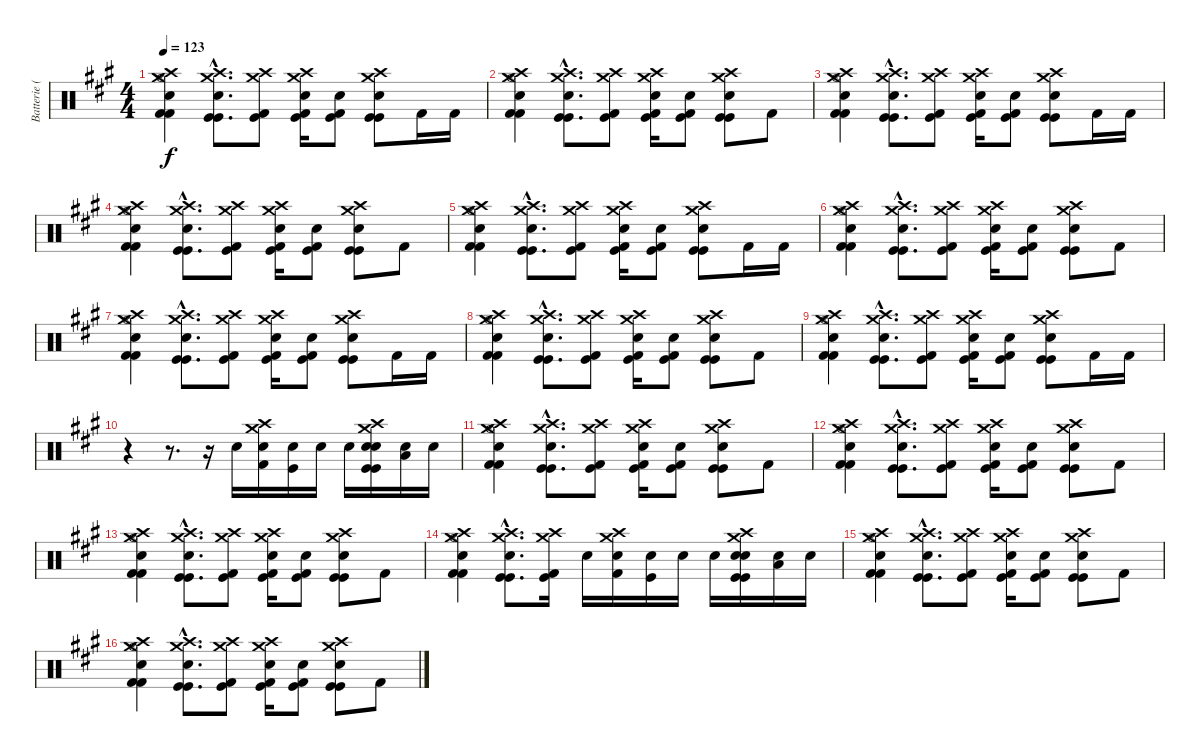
\track ("Batterie (Dominic Howard)" "Batterie (") {instrument percussion}
\staff {score}
\articulation defaults
\ts (4 4)
\tempo 123
\clef neutral
\ks a
("Crash medium (hit)" "Crash high (hit)" "Hi-Hat (open)" "Snare (hit) 2" "Kick (hit) 2" "Kick (hit) 2").4{dy f} ("Crash medium (hit)"{hac} "Crash high (hit)"{hac} "Electric Snare (hit)"{hac} "Kick (hit)"{hac} "Kick (hit)"{hac}).8{d} ("Crash medium (hit)" "Crash high (hit)" "Kick (hit)" "Kick (hit) 2").8 ("Crash medium (hit)" "Crash high (hit)" "Snare (hit) 2" "Kick (hit)" "Kick (hit) 2").16 ("Snare (hit) 2" "Kick (hit) 2" "Kick (hit)").8 ("Crash medium (hit)" "Crash high (hit)" "Electric Snare (hit)" "Kick (hit)" "Kick (hit)").8 "Kick (hit) 2".16 "Kick (hit) 2".16 |
("Crash medium (hit)" "Crash high (hit)" "Hi-Hat (open)" "Snare (hit) 2" "Kick (hit) 2" "Kick (hit) 2").4 ("Crash medium (hit)"{hac} "Crash high (hit)"{hac} "Electric Snare (hit)"{hac} "Kick (hit)"{hac} "Kick (hit)"{hac}).8{d} ("Crash medium (hit)" "Crash high (hit)" "Kick (hit)" "Kick (hit) 2").8 ("Crash medium (hit)" "Crash high (hit)" "Snare (hit) 2" "Kick (hit)" "Kick (hit) 2").16 ("Snare (hit) 2" "Kick (hit) 2" "Kick (hit)").8 ("Crash medium (hit)" "Crash high (hit)" "Electric Snare (hit)" "Kick (hit)" "Kick (hit)").8 "Kick (hit) 2".8 |
("Crash medium (hit)" "Crash high (hit)" "Hi-Hat (open)" "Snare (hit) 2" "Kick (hit) 2" "Kick (hit) 2").4 ("Crash medium (hit)"{hac} "Crash high (hit)"{hac} "Electric Snare (hit)"{hac} "Kick (hit)"{hac} "Kick (hit)"{hac}).8{d} ("Crash medium (hit)" "Crash high (hit)" "Kick (hit)" "Kick (hit) 2").8 ("Crash medium (hit)" "Crash high (hit)" "Snare (hit) 2" "Kick (hit)" "Kick (hit) 2").16 ("Snare (hit) 2" "Kick (hit) 2" "Kick (hit)").8 ("Crash medium (hit)" "Crash high (hit)" "Electric Snare (hit)" "Kick (hit)" "Kick (hit)").8 "Kick (hit) 2".16 "Kick (hit) 2".16 |
("Crash medium (hit)" "Crash high (hit)" "Hi-Hat (open)" "Snare (hit) 2" "Kick (hit) 2" "Kick (hit) 2").4 ("Crash medium (hit)"{hac} "Crash high (hit)"{hac} "Electric Snare (hit)"{hac} "Kick (hit)"{hac} "Kick (hit)"{hac}).8{d} ("Crash medium (hit)" "Crash high (hit)" "Kick (hit)" "Kick (hit) 2").8 ("Crash medium (hit)" "Crash high (hit)" "Snare (hit) 2" "Kick (hit)" "Kick (hit) 2").16 ("Snare (hit) 2" "Kick (hit) 2" "Kick (hit)").8 ("Crash medium (hit)" "Crash high (hit)" "Electric Snare (hit)" "Kick (hit)" "Kick (hit)").8 "Kick (hit) 2".8 |
("Crash medium (hit)" "Crash high (hit)" "Hi-Hat (open)" "Snare (hit) 2" "Kick (hit) 2" "Kick (hit) 2").4 ("Crash medium (hit)"{hac} "Crash high (hit)"{hac} "Electric Snare (hit)"{hac} "Kick (hit)"{hac} "Kick (hit)"{hac}).8{d} ("Crash medium (hit)" "Crash high (hit)" "Kick (hit)" "Kick (hit) 2").8 ("Crash medium (hit)" "Crash high (hit)" "Snare (hit) 2" "Kick (hit)" "Kick (hit) 2").16 ("Snare (hit) 2" "Kick (hit) 2" "Kick (hit)").8 ("Crash medium (hit)" "Crash high (hit)" "Electric Snare (hit)" "Kick (hit)" "Kick (hit)").8 "Kick (hit) 2".16 "Kick (hit) 2".16 |
("Crash medium (hit)" "Crash high (hit)" "Hi-Hat (open)" "Snare (hit) 2" "Kick (hit) 2" "Kick (hit) 2").4 ("Crash medium (hit)"{hac} "Crash high (hit)"{hac} "Electric Snare (hit)"{hac} "Kick (hit)"{hac} "Kick (hit)"{hac}).8{d} ("Crash medium (hit)" "Crash high (hit)" "Kick (hit)" "Kick (hit) 2").8 ("Crash medium (hit)" "Crash high (hit)" "Snare (hit) 2" "Kick (hit)" "Kick (hit) 2").16 ("Snare (hit) 2" "Kick (hit) 2" "Kick (hit)").8 ("Crash medium (hit)" "Crash high (hit)" "Electric Snare (hit)" "Kick (hit)" "Kick (hit)").8 "Kick (hit) 2".8 |
("Crash medium (hit)" "Crash high (hit)" "Hi-Hat (open)" "Snare (hit) 2" "Kick (hit) 2" "Kick (hit) 2").4 ("Crash medium (hit)"{hac} "Crash high (hit)"{hac} "Electric Snare (hit)"{hac} "Kick (hit)"{hac} "Kick (hit)"{hac}).8{d} ("Crash medium (hit)" "Crash high (hit)" "Kick (hit)" "Kick (hit) 2").8 ("Crash medium (hit)" "Crash high (hit)" "Snare (hit) 2" "Kick (hit)" "Kick (hit) 2").16 ("Snare (hit) 2" "Kick (hit) 2" "Kick (hit)").8 ("Crash medium (hit)" "Crash high (hit)" "Electric Snare (hit)" "Kick (hit)" "Kick (hit)").8 "Kick (hit) 2".16 "Kick (hit) 2".16 |
("Crash medium (hit)" "Crash high (hit)" "Hi-Hat (open)" "Snare (hit) 2" "Kick (hit) 2" "Kick (hit) 2").4 ("Crash medium (hit)"{hac} "Crash high (hit)"{hac} "Electric Snare (hit)"{hac} "Kick (hit)"{hac} "Kick (hit)"{hac}).8{d} ("Crash medium (hit)" "Crash high (hit)" "Kick (hit)" "Kick (hit) 2").8 ("Crash medium (hit)" "Crash high (hit)" "Snare (hit) 2" "Kick (hit)" "Kick (hit) 2").16 ("Snare (hit) 2" "Kick (hit) 2" "Kick (hit)").8 ("Crash medium (hit)" "Crash high (hit)" "Electric Snare (hit)" "Kick (hit)" "Kick (hit)").8 "Kick (hit) 2".8 |
("Crash medium (hit)" "Crash high (hit)" "Hi-Hat (open)" "Snare (hit) 2" "Kick (hit) 2" "Kick (hit) 2").4 ("Crash medium (hit)"{hac} "Crash high (hit)"{hac} "Electric Snare (hit)"{hac} "Kick (hit)"{hac} "Kick (hit)"{hac}).8{d} ("Crash medium (hit)" "Crash high (hit)" "Kick (hit)" "Kick (hit) 2").8 ("Crash medium (hit)" "Crash high (hit)" "Snare (hit) 2" "Kick (hit)" "Kick (hit) 2").16 ("Snare (hit) 2" "Kick (hit) 2" "Kick (hit)").8 ("Crash medium (hit)" "Crash high (hit)" "Electric Snare (hit)" "Kick (hit)" "Kick (hit)").8 "Kick (hit) 2".16 "Kick (hit) 2".16 |
r.4 r.8{d} r.16 "Electric Snare (hit)".16 ("Crash medium (hit)" "Crash high (hit)" "Electric Snare (hit)" "Kick (hit) 2").16 ("Electric Snare (hit)" "Kick (hit)").16 "Electric Snare (hit)".16 "Electric Snare (hit)".16 ("Crash medium (hit)" "Crash high (hit)" "Electric Snare (hit)" "Electric Snare (hit)" "Kick (hit)" "Kick (hit)").16 ("Electric Snare (hit)" "Low Floor Tom (hit)").16 "Electric Snare (hit)".16 |
("Crash medium (hit)" "Crash high (hit)" "Hi-Hat (open)" "Snare (hit) 2" "Kick (hit) 2" "Kick (hit) 2").4 ("Crash medium (hit)"{hac} "Crash high (hit)"{hac} "Electric Snare (hit)"{hac} "Kick (hit)"{hac} "Kick (hit)"{hac}).8{d} ("Crash medium (hit)" "Crash high (hit)" "Kick (hit)" "Kick (hit) 2").8 ("Crash medium (hit)" "Crash high (hit)" "Snare (hit) 2" "Kick (hit)" "Kick (hit) 2").16 ("Snare (hit) 2" "Kick (hit) 2" "Kick (hit)").8 ("Crash medium (hit)" "Crash high (hit)" "Electric Snare (hit)" "Kick (hit)" "Kick (hit)").8 "Kick (hit) 2".8 |
("Crash medium (hit)" "Crash high (hit)" "Hi-Hat (open)" "Snare (hit) 2" "Kick (hit) 2" "Kick (hit) 2").4 ("Crash medium (hit)"{hac} "Crash high (hit)"{hac} "Electric Snare (hit)"{hac} "Kick (hit)"{hac} "Kick (hit)"{hac}).8{d} ("Crash medium (hit)" "Crash high (hit)" "Kick (hit)" "Kick (hit) 2").8 ("Crash medium (hit)" "Crash high (hit)" "Snare (hit) 2" "Kick (hit)" "Kick (hit) 2").16 ("Snare (hit) 2" "Kick (hit) 2" "Kick (hit)").8 ("Crash medium (hit)" "Crash high (hit)" "Electric Snare (hit)" "Kick (hit)" "Kick (hit)").8 "Kick (hit) 2".8 |
("Crash medium (hit)" "Crash high (hit)" "Hi-Hat (open)" "Snare (hit) 2" "Kick (hit) 2" "Kick (hit) 2").4 ("Crash medium (hit)"{hac} "Crash high (hit)"{hac} "Electric Snare (hit)"{hac} "Kick (hit)"{hac} "Kick (hit)"{hac}).8{d} ("Crash medium (hit)" "Crash high (hit)" "Kick (hit)" "Kick (hit) 2").8 ("Crash medium (hit)" "Crash high (hit)" "Snare (hit) 2" "Kick (hit)" "Kick (hit) 2").16 ("Snare (hit) 2" "Kick (hit) 2" "Kick (hit)").8 ("Crash medium (hit)" "Crash high (hit)" "Electric Snare (hit)" "Kick (hit)" "Kick (hit)").8 "Kick (hit) 2".8 |
("Crash medium (hit)" "Crash high (hit)" "Hi-Hat (open)" "Snare (hit) 2" "Kick (hit) 2" "Kick (hit) 2").4 ("Crash medium (hit)"{hac} "Crash high (hit)"{hac} "Electric Snare (hit)"{hac} "Kick (hit)"{hac} "Kick (hit)"{hac}).8{d} ("Crash medium (hit)" "Crash high (hit)" "Kick (hit)" "Kick (hit) 2").16 "Electric Snare (hit)".16 ("Crash medium (hit)" "Crash high (hit)" "Electric Snare (hit)" "Kick (hit) 2").16 ("Electric Snare (hit)" "Kick (hit)").16 "Electric Snare (hit)".16 "Electric Snare (hit)".16 ("Crash medium (hit)" "Crash high (hit)" "Electric Snare (hit)" "Electric Snare (hit)" "Kick (hit)" "Kick (hit)").16 ("Electric Snare (hit)" "Low Floor Tom (hit)").16 "Electric Snare (hit)".16 |
("Crash medium (hit)" "Crash high (hit)" "Hi-Hat (open)" "Snare (hit) 2" "Kick (hit) 2" "Kick (hit) 2").4 ("Crash medium (hit)"{hac} "Crash high (hit)"{hac} "Electric Snare (hit)"{hac} "Kick (hit)"{hac} "Kick (hit)"{hac}).8{d} ("Crash medium (hit)" "Crash high (hit)" "Kick (hit)" "Kick (hit) 2").8 ("Crash medium (hit)" "Crash high (hit)" "Snare (hit) 2" "Kick (hit)" "Kick (hit) 2").16 ("Snare (hit) 2" "Kick (hit) 2" "Kick (hit)").8 ("Crash medium (hit)" "Crash high (hit)" "Electric Snare (hit)" "Kick (hit)" "Kick (hit)").8 "Kick (hit) 2".8 |
("Crash medium (hit)" "Crash high (hit)" "Hi-Hat (open)" "Snare (hit) 2" "Kick (hit) 2" "Kick (hit) 2").4 ("Crash medium (hit)"{hac} "Crash high (hit)"{hac} "Electric Snare (hit)"{hac} "Kick (hit)"{hac} "Kick (hit)"{hac}).8{d} ("Crash medium (hit)" "Crash high (hit)" "Kick (hit)" "Kick (hit) 2").8 ("Crash medium (hit)" "Crash high (hit)" "Snare (hit) 2" "Kick (hit)" "Kick (hit) 2").16 ("Snare (hit) 2" "Kick (hit) 2" "Kick (hit)").8 ("Crash medium (hit)" "Crash high (hit)" "Electric Snare (hit)" "Kick (hit)" "Kick (hit)").8 "Kick (hit) 2".8
